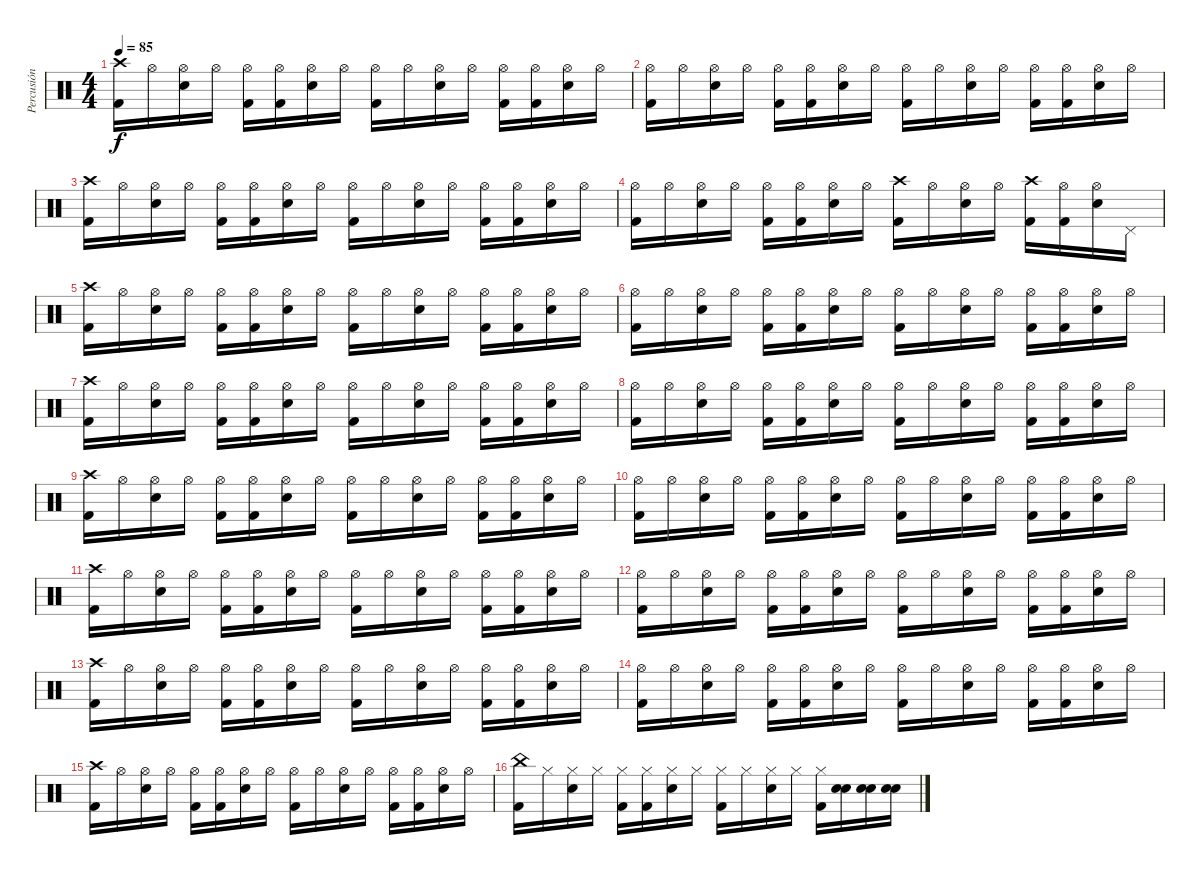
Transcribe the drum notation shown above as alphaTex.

\track ("Percusión" "Percusión") {instrument percussion}
\staff {score}
\articulation defaults
\ts (4 4)
\tempo 85
\clef neutral
\ks c
("Crash high (hit)" "Kick (hit) 2").16{dy f} "Hi-Hat (open)".16 ("Hi-Hat (open)" "Electric Snare (hit)").16 "Hi-Hat (open)".16 ("Hi-Hat (open)" "Kick (hit) 2").16 ("Hi-Hat (open)" "Kick (hit) 2").16 ("Hi-Hat (open)" "Electric Snare (hit)").16 "Hi-Hat (open)".16 ("Hi-Hat (open)" "Kick (hit) 2").16 "Hi-Hat (open)".16 ("Hi-Hat (open)" "Electric Snare (hit)").16 "Hi-Hat (open)".16 ("Hi-Hat (open)" "Kick (hit) 2").16 ("Hi-Hat (open)" "Kick (hit) 2").16 ("Hi-Hat (open)" "Electric Snare (hit)").16 "Hi-Hat (open)".16 |
("Hi-Hat (open)" "Kick (hit) 2").16 "Hi-Hat (open)".16 ("Hi-Hat (open)" "Electric Snare (hit)").16 "Hi-Hat (open)".16 ("Hi-Hat (open)" "Kick (hit) 2").16 ("Hi-Hat (open)" "Kick (hit) 2").16 ("Hi-Hat (open)" "Electric Snare (hit)").16 "Hi-Hat (open)".16 ("Hi-Hat (open)" "Kick (hit) 2").16 "Hi-Hat (open)".16 ("Hi-Hat (open)" "Electric Snare (hit)").16 "Hi-Hat (open)".16 ("Hi-Hat (open)" "Kick (hit) 2").16 ("Hi-Hat (open)" "Kick (hit) 2").16 ("Hi-Hat (open)" "Electric Snare (hit)").16 "Hi-Hat (open)".16 |
("Crash high (hit)" "Kick (hit) 2").16 "Hi-Hat (open)".16 ("Hi-Hat (open)" "Electric Snare (hit)").16 "Hi-Hat (open)".16 ("Hi-Hat (open)" "Kick (hit) 2").16 ("Hi-Hat (open)" "Kick (hit) 2").16 ("Hi-Hat (open)" "Electric Snare (hit)").16 "Hi-Hat (open)".16 ("Hi-Hat (open)" "Kick (hit) 2").16 "Hi-Hat (open)".16 ("Hi-Hat (open)" "Electric Snare (hit)").16 "Hi-Hat (open)".16 ("Hi-Hat (open)" "Kick (hit) 2").16 ("Hi-Hat (open)" "Kick (hit) 2").16 ("Hi-Hat (open)" "Electric Snare (hit)").16 "Hi-Hat (open)".16 |
("Hi-Hat (open)" "Kick (hit) 2").16 "Hi-Hat (open)".16 ("Hi-Hat (open)" "Electric Snare (hit)").16 "Hi-Hat (open)".16 ("Hi-Hat (open)" "Kick (hit) 2").16 ("Hi-Hat (open)" "Kick (hit) 2").16 ("Hi-Hat (open)" "Electric Snare (hit)").16 "Hi-Hat (open)".16 ("Crash high (hit)" "Kick (hit) 2").16 "Hi-Hat (open)".16 ("Hi-Hat (open)" "Electric Snare (hit)").16 "Hi-Hat (open)".16 ("Crash high (hit)" "Kick (hit) 2").16 ("Hi-Hat (open)" "Kick (hit) 2").16 ("Hi-Hat (open)" "Electric Snare (hit)").16 "Pedal Hi-Hat (hit)".16 |
("Crash high (hit)" "Kick (hit) 2").16 "Hi-Hat (open)".16 ("Hi-Hat (open)" "Electric Snare (hit)").16 "Hi-Hat (open)".16 ("Hi-Hat (open)" "Kick (hit) 2").16 ("Hi-Hat (open)" "Kick (hit) 2").16 ("Hi-Hat (open)" "Electric Snare (hit)").16 "Hi-Hat (open)".16 ("Hi-Hat (open)" "Kick (hit) 2").16 "Hi-Hat (open)".16 ("Hi-Hat (open)" "Electric Snare (hit)").16 "Hi-Hat (open)".16 ("Hi-Hat (open)" "Kick (hit) 2").16 ("Hi-Hat (open)" "Kick (hit) 2").16 ("Hi-Hat (open)" "Electric Snare (hit)").16 "Hi-Hat (open)".16 |
("Hi-Hat (open)" "Kick (hit) 2").16 "Hi-Hat (open)".16 ("Hi-Hat (open)" "Electric Snare (hit)").16 "Hi-Hat (open)".16 ("Hi-Hat (open)" "Kick (hit) 2").16 ("Hi-Hat (open)" "Kick (hit) 2").16 ("Hi-Hat (open)" "Electric Snare (hit)").16 "Hi-Hat (open)".16 ("Hi-Hat (open)" "Kick (hit) 2").16 "Hi-Hat (open)".16 ("Hi-Hat (open)" "Electric Snare (hit)").16 "Hi-Hat (open)".16 ("Hi-Hat (open)" "Kick (hit) 2").16 ("Hi-Hat (open)" "Kick (hit) 2").16 ("Hi-Hat (open)" "Electric Snare (hit)").16 "Hi-Hat (open)".16 |
("Crash high (hit)" "Kick (hit) 2").16 "Hi-Hat (open)".16 ("Hi-Hat (open)" "Electric Snare (hit)").16 "Hi-Hat (open)".16 ("Hi-Hat (open)" "Kick (hit) 2").16 ("Hi-Hat (open)" "Kick (hit) 2").16 ("Hi-Hat (open)" "Electric Snare (hit)").16 "Hi-Hat (open)".16 ("Hi-Hat (open)" "Kick (hit) 2").16 "Hi-Hat (open)".16 ("Hi-Hat (open)" "Electric Snare (hit)").16 "Hi-Hat (open)".16 ("Hi-Hat (open)" "Kick (hit) 2").16 ("Hi-Hat (open)" "Kick (hit) 2").16 ("Hi-Hat (open)" "Electric Snare (hit)").16 "Hi-Hat (open)".16 |
("Hi-Hat (open)" "Kick (hit) 2").16 "Hi-Hat (open)".16 ("Hi-Hat (open)" "Electric Snare (hit)").16 "Hi-Hat (open)".16 ("Hi-Hat (open)" "Kick (hit) 2").16 ("Hi-Hat (open)" "Kick (hit) 2").16 ("Hi-Hat (open)" "Electric Snare (hit)").16 "Hi-Hat (open)".16 ("Hi-Hat (open)" "Kick (hit) 2").16 "Hi-Hat (open)".16 ("Hi-Hat (open)" "Electric Snare (hit)").16 "Hi-Hat (open)".16 ("Hi-Hat (open)" "Kick (hit) 2").16 ("Hi-Hat (open)" "Kick (hit) 2").16 ("Hi-Hat (open)" "Electric Snare (hit)").16 "Hi-Hat (open)".16 |
("Crash high (hit)" "Kick (hit) 2").16 "Hi-Hat (open)".16 ("Hi-Hat (open)" "Electric Snare (hit)").16 "Hi-Hat (open)".16 ("Hi-Hat (open)" "Kick (hit) 2").16 ("Hi-Hat (open)" "Kick (hit) 2").16 ("Hi-Hat (open)" "Electric Snare (hit)").16 "Hi-Hat (open)".16 ("Hi-Hat (open)" "Kick (hit) 2").16 "Hi-Hat (open)".16 ("Hi-Hat (open)" "Electric Snare (hit)").16 "Hi-Hat (open)".16 ("Hi-Hat (open)" "Kick (hit) 2").16 ("Hi-Hat (open)" "Kick (hit) 2").16 ("Hi-Hat (open)" "Electric Snare (hit)").16 "Hi-Hat (open)".16 |
("Hi-Hat (open)" "Kick (hit) 2").16 "Hi-Hat (open)".16 ("Hi-Hat (open)" "Electric Snare (hit)").16 "Hi-Hat (open)".16 ("Hi-Hat (open)" "Kick (hit) 2").16 ("Hi-Hat (open)" "Kick (hit) 2").16 ("Hi-Hat (open)" "Electric Snare (hit)").16 "Hi-Hat (open)".16 ("Hi-Hat (open)" "Kick (hit) 2").16 "Hi-Hat (open)".16 ("Hi-Hat (open)" "Electric Snare (hit)").16 "Hi-Hat (open)".16 ("Hi-Hat (open)" "Kick (hit) 2").16 ("Hi-Hat (open)" "Kick (hit) 2").16 ("Hi-Hat (open)" "Electric Snare (hit)").16 "Hi-Hat (open)".16 |
("Crash high (hit)" "Kick (hit) 2").16 "Hi-Hat (open)".16 ("Hi-Hat (open)" "Electric Snare (hit)").16 "Hi-Hat (open)".16 ("Hi-Hat (open)" "Kick (hit) 2").16 ("Hi-Hat (open)" "Kick (hit) 2").16 ("Hi-Hat (open)" "Electric Snare (hit)").16 "Hi-Hat (open)".16 ("Hi-Hat (open)" "Kick (hit) 2").16 "Hi-Hat (open)".16 ("Hi-Hat (open)" "Electric Snare (hit)").16 "Hi-Hat (open)".16 ("Hi-Hat (open)" "Kick (hit) 2").16 ("Hi-Hat (open)" "Kick (hit) 2").16 ("Hi-Hat (open)" "Electric Snare (hit)").16 "Hi-Hat (open)".16 |
("Hi-Hat (open)" "Kick (hit) 2").16 "Hi-Hat (open)".16 ("Hi-Hat (open)" "Electric Snare (hit)").16 "Hi-Hat (open)".16 ("Hi-Hat (open)" "Kick (hit) 2").16 ("Hi-Hat (open)" "Kick (hit) 2").16 ("Hi-Hat (open)" "Electric Snare (hit)").16 "Hi-Hat (open)".16 ("Hi-Hat (open)" "Kick (hit) 2").16 "Hi-Hat (open)".16 ("Hi-Hat (open)" "Electric Snare (hit)").16 "Hi-Hat (open)".16 ("Hi-Hat (open)" "Kick (hit) 2").16 ("Hi-Hat (open)" "Kick (hit) 2").16 ("Hi-Hat (open)" "Electric Snare (hit)").16 "Hi-Hat (open)".16 |
("Crash high (hit)" "Kick (hit) 2").16 "Hi-Hat (open)".16 ("Hi-Hat (open)" "Electric Snare (hit)").16 "Hi-Hat (open)".16 ("Hi-Hat (open)" "Kick (hit) 2").16 ("Hi-Hat (open)" "Kick (hit) 2").16 ("Hi-Hat (open)" "Electric Snare (hit)").16 "Hi-Hat (open)".16 ("Hi-Hat (open)" "Kick (hit) 2").16 "Hi-Hat (open)".16 ("Hi-Hat (open)" "Electric Snare (hit)").16 "Hi-Hat (open)".16 ("Hi-Hat (open)" "Kick (hit) 2").16 ("Hi-Hat (open)" "Kick (hit) 2").16 ("Hi-Hat (open)" "Electric Snare (hit)").16 "Hi-Hat (open)".16 |
("Hi-Hat (open)" "Kick (hit) 2").16 "Hi-Hat (open)".16 ("Hi-Hat (open)" "Electric Snare (hit)").16 "Hi-Hat (open)".16 ("Hi-Hat (open)" "Kick (hit) 2").16 ("Hi-Hat (open)" "Kick (hit) 2").16 ("Hi-Hat (open)" "Electric Snare (hit)").16 "Hi-Hat (open)".16 ("Hi-Hat (open)" "Kick (hit) 2").16 "Hi-Hat (open)".16 ("Hi-Hat (open)" "Electric Snare (hit)").16 "Hi-Hat (open)".16 ("Hi-Hat (open)" "Kick (hit) 2").16 ("Hi-Hat (open)" "Kick (hit) 2").16 ("Hi-Hat (open)" "Electric Snare (hit)").16 "Hi-Hat (open)".16 |
("Crash high (hit)" "Kick (hit) 2").16 "Hi-Hat (open)".16 ("Hi-Hat (open)" "Electric Snare (hit)").16 "Hi-Hat (open)".16 ("Hi-Hat (open)" "Kick (hit) 2").16 ("Hi-Hat (open)" "Kick (hit) 2").16 ("Hi-Hat (open)" "Electric Snare (hit)").16 "Hi-Hat (open)".16 ("Hi-Hat (open)" "Kick (hit) 2").16 "Hi-Hat (open)".16 ("Hi-Hat (open)" "Electric Snare (hit)").16 "Hi-Hat (open)".16 ("Hi-Hat (open)" "Kick (hit) 2").16 ("Hi-Hat (open)" "Kick (hit) 2").16 ("Hi-Hat (open)" "Electric Snare (hit)").16 "Hi-Hat (open)".16 |
("China (hit)" "Kick (hit) 2").16 "Hi-Hat (closed)".16 ("Hi-Hat (closed)" "Electric Snare (hit)").16 "Hi-Hat (closed)".16 ("Hi-Hat (closed)" "Kick (hit) 2").16 ("Hi-Hat (closed)" "Kick (hit) 2").16 ("Hi-Hat (closed)" "Electric Snare (hit)").16 "Hi-Hat (closed)".16 ("Hi-Hat (closed)" "Kick (hit) 2").16 "Hi-Hat (closed)".16 ("Hi-Hat (closed)" "Electric Snare (hit)").16 "Hi-Hat (closed)".16 ("Hi-Hat (closed)" "Kick (hit) 2").16 ("Electric Snare (hit)" "Snare (hit) 2").16 ("Electric Snare (hit)" "Snare (hit) 2").16 ("Electric Snare (hit)" "Snare (hit) 2").16
